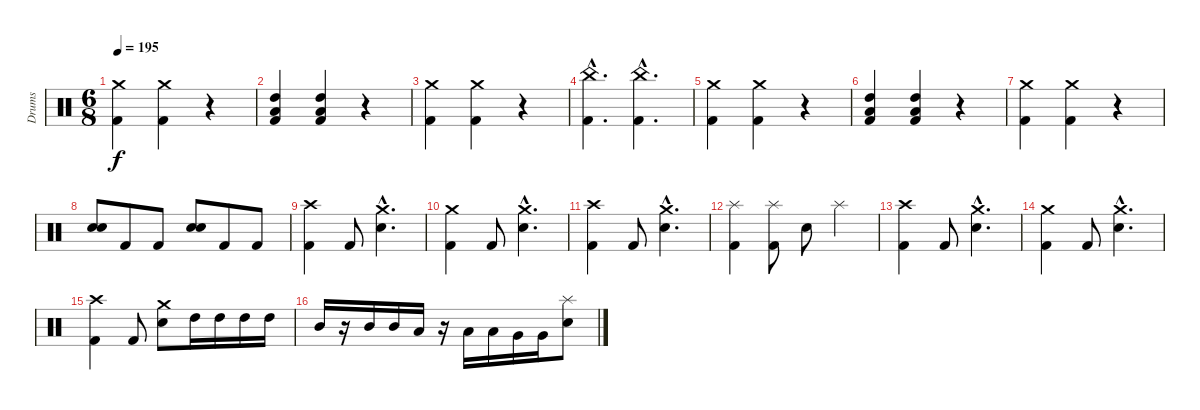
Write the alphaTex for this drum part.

\track ("Drums" "Drums") {instrument percussion}
\staff {score}
\articulation defaults
\ts (6 8)
\tempo 195
\clef neutral
\ks c
("Crash medium (hit)" "Kick (hit) 2").4{dy f} ("Crash medium (hit)" "Kick (hit) 2").4 r.4 |
("High Tom (hit)" "Low Tom (hit)" "Kick (hit) 2").4 ("High Tom (hit)" "Low Tom (hit)" "Kick (hit) 2").4 r.4 |
("Crash medium (hit)" "Kick (hit) 2").4 ("Crash medium (hit)" "Kick (hit) 2").4 r.4 |
("China (hit)"{hac} "Kick (hit) 2"{hac}).4{d} ("China (hit)"{hac} "Kick (hit) 2"{hac}).4{d} |
("Crash medium (hit)" "Kick (hit) 2").4 ("Crash medium (hit)" "Kick (hit) 2").4 r.4 |
("High Tom (hit)" "Low Tom (hit)" "Kick (hit) 2").4 ("High Tom (hit)" "Low Tom (hit)" "Kick (hit) 2").4 r.4 |
("Crash medium (hit)" "Kick (hit) 2").4 ("Crash medium (hit)" "Kick (hit) 2").4 r.4 |
("Electric Snare (hit)" "Electric Snare (hit)").8{bd 240} "Kick (hit) 2".8 "Kick (hit) 2".8 ("Electric Snare (hit)" "Electric Snare (hit)").8{bd 240} "Kick (hit) 2".8 "Kick (hit) 2".8 |
("Crash high (hit)" "Kick (hit) 2").4 "Kick (hit) 2".8 ("Crash medium (hit)"{hac} "Electric Snare (hit)"{hac}).4{d} |
("Crash medium (hit)" "Kick (hit) 2").4 "Kick (hit) 2".8 ("Crash medium (hit)"{hac} "Electric Snare (hit)"{hac}).4{d} |
("Crash high (hit)" "Kick (hit) 2").4 "Kick (hit) 2".8 ("Crash medium (hit)"{hac} "Electric Snare (hit)"{hac}).4{d} |
("Splash (hit)" "Kick (hit) 2").4 ("Splash (hit)" "Kick (hit) 2").8 "Electric Snare (hit)".8 "Splash (hit)".4 |
("Crash high (hit)" "Kick (hit) 2").4 "Kick (hit) 2".8 ("Crash medium (hit)"{hac} "Electric Snare (hit)"{hac}).4{d} |
("Crash medium (hit)" "Kick (hit) 2").4 "Kick (hit) 2".8 ("Crash medium (hit)"{hac} "Electric Snare (hit)"{hac}).4{d} |
("Crash high (hit)" "Kick (hit) 2").4 "Kick (hit) 2".8 ("Crash medium (hit)" "Electric Snare (hit)").8 "High Tom (hit)".16 "High Tom (hit)".16 "High Tom (hit)".16 "High Tom (hit)".16 |
"Mid Tom (hit)".16 r.16 "Mid Tom (hit)".16 "Mid Tom (hit)".16 "Low Tom (hit)".16 r.16 "Low Tom (hit)".16 "Low Tom (hit)".16 "Very Low Tom (hit)".16 "Very Low Tom (hit)".16 ("Splash (hit)" "Electric Snare (hit)").8
